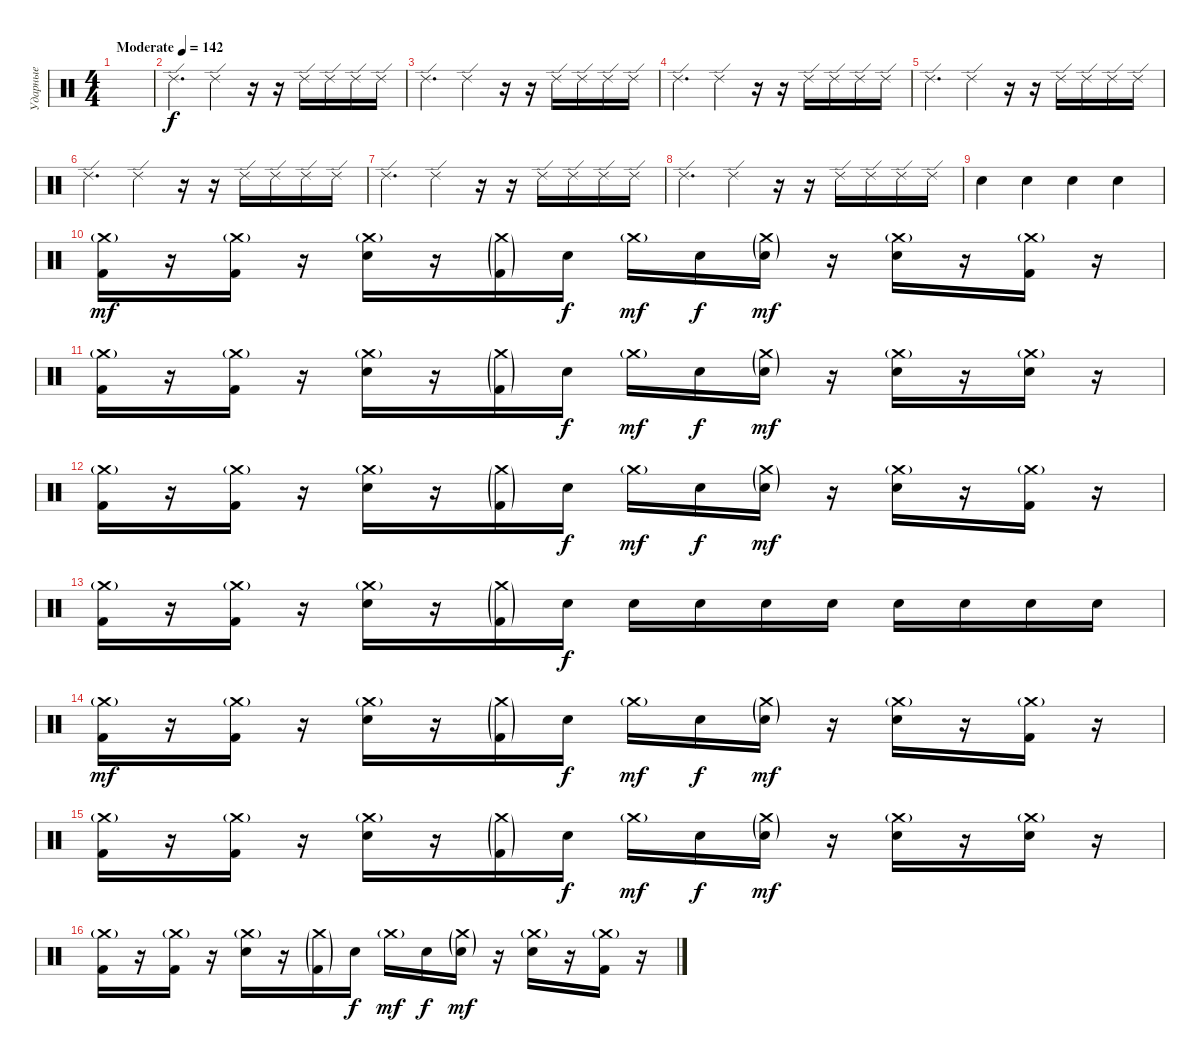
\track ("Ударные" "Ударные") {instrument percussion}
\staff {score}
\articulation defaults
\ts (4 4)
\tempo (142 "Moderate")
\clef neutral
\ks c
|
"Ride (edge) 2".4{d} "Ride (edge) 2".4 r.16 r.16 "Ride (edge) 2".16 "Ride (edge) 2".16 "Ride (edge) 2".16 "Ride (edge) 2".16 |
"Ride (edge) 2".4{d} "Ride (edge) 2".4 r.16 r.16 "Ride (edge) 2".16 "Ride (edge) 2".16 "Ride (edge) 2".16 "Ride (edge) 2".16 |
"Ride (edge) 2".4{d} "Ride (edge) 2".4 r.16 r.16 "Ride (edge) 2".16 "Ride (edge) 2".16 "Ride (edge) 2".16 "Ride (edge) 2".16 |
"Ride (edge) 2".4{d} "Ride (edge) 2".4 r.16 r.16 "Ride (edge) 2".16 "Ride (edge) 2".16 "Ride (edge) 2".16 "Ride (edge) 2".16 |
"Ride (edge) 2".4{d} "Ride (edge) 2".4 r.16 r.16 "Ride (edge) 2".16 "Ride (edge) 2".16 "Ride (edge) 2".16 "Ride (edge) 2".16 |
"Ride (edge) 2".4{d} "Ride (edge) 2".4 r.16 r.16 "Ride (edge) 2".16 "Ride (edge) 2".16 "Ride (edge) 2".16 "Ride (edge) 2".16 |
"Ride (edge) 2".4{d} "Ride (edge) 2".4 r.16 r.16 "Ride (edge) 2".16 "Ride (edge) 2".16 "Ride (edge) 2".16 "Ride (edge) 2".16 |
"Electric Snare (hit)".4 "Electric Snare (hit)".4 "Electric Snare (hit)".4 "Electric Snare (hit)".4 |
("Kick (hit) 2" "Crash medium (hit)"{g}).16{dy mf} r.16 ("Kick (hit) 2" "Crash medium (hit)"{g}).16 r.16 ("Electric Snare (hit)" "Crash medium (hit)"{g}).16 r.16 ("Kick (hit) 2"{g} "Crash medium (hit)"{g}).16 "Electric Snare (hit)".16{dy f} "Crash medium (hit)"{g}.16{dy mf} "Electric Snare (hit)".16{dy f} ("Electric Snare (hit)"{g} "Crash medium (hit)"{g}).16{dy mf} r.16 ("Electric Snare (hit)" "Crash medium (hit)"{g}).16 r.16 ("Kick (hit) 2" "Crash medium (hit)"{g}).16 r.16 |
("Kick (hit) 2" "Crash medium (hit)"{g}).16 r.16 ("Kick (hit) 2" "Crash medium (hit)"{g}).16 r.16 ("Electric Snare (hit)" "Crash medium (hit)"{g}).16 r.16 ("Kick (hit) 2"{g} "Crash medium (hit)"{g}).16 "Electric Snare (hit)".16{dy f} "Crash medium (hit)"{g}.16{dy mf} "Electric Snare (hit)".16{dy f} ("Electric Snare (hit)"{g} "Crash medium (hit)"{g}).16{dy mf} r.16 ("Electric Snare (hit)" "Crash medium (hit)"{g}).16 r.16 ("Electric Snare (hit)" "Crash medium (hit)"{g}).16 r.16 |
("Kick (hit) 2" "Crash medium (hit)"{g}).16 r.16 ("Kick (hit) 2" "Crash medium (hit)"{g}).16 r.16 ("Electric Snare (hit)" "Crash medium (hit)"{g}).16 r.16 ("Kick (hit) 2"{g} "Crash medium (hit)"{g}).16 "Electric Snare (hit)".16{dy f} "Crash medium (hit)"{g}.16{dy mf} "Electric Snare (hit)".16{dy f} ("Electric Snare (hit)"{g} "Crash medium (hit)"{g}).16{dy mf} r.16 ("Electric Snare (hit)" "Crash medium (hit)"{g}).16 r.16 ("Kick (hit) 2" "Crash medium (hit)"{g}).16 r.16 |
("Kick (hit) 2" "Crash medium (hit)"{g}).16 r.16 ("Kick (hit) 2" "Crash medium (hit)"{g}).16 r.16 ("Electric Snare (hit)" "Crash medium (hit)"{g}).16 r.16 ("Kick (hit) 2"{g} "Crash medium (hit)"{g}).16 "Electric Snare (hit)".16{dy f} "Electric Snare (hit)".16 "Electric Snare (hit)".16 "Electric Snare (hit)".16 "Electric Snare (hit)".16 "Electric Snare (hit)".16 "Electric Snare (hit)".16 "Electric Snare (hit)".16 "Electric Snare (hit)".16 |
("Kick (hit) 2" "Crash medium (hit)"{g}).16{dy mf} r.16 ("Kick (hit) 2" "Crash medium (hit)"{g}).16 r.16 ("Electric Snare (hit)" "Crash medium (hit)"{g}).16 r.16 ("Kick (hit) 2"{g} "Crash medium (hit)"{g}).16 "Electric Snare (hit)".16{dy f} "Crash medium (hit)"{g}.16{dy mf} "Electric Snare (hit)".16{dy f} ("Electric Snare (hit)"{g} "Crash medium (hit)"{g}).16{dy mf} r.16 ("Electric Snare (hit)" "Crash medium (hit)"{g}).16 r.16 ("Kick (hit) 2" "Crash medium (hit)"{g}).16 r.16 |
("Kick (hit) 2" "Crash medium (hit)"{g}).16 r.16 ("Kick (hit) 2" "Crash medium (hit)"{g}).16 r.16 ("Electric Snare (hit)" "Crash medium (hit)"{g}).16 r.16 ("Kick (hit) 2"{g} "Crash medium (hit)"{g}).16 "Electric Snare (hit)".16{dy f} "Crash medium (hit)"{g}.16{dy mf} "Electric Snare (hit)".16{dy f} ("Electric Snare (hit)"{g} "Crash medium (hit)"{g}).16{dy mf} r.16 ("Electric Snare (hit)" "Crash medium (hit)"{g}).16 r.16 ("Electric Snare (hit)" "Crash medium (hit)"{g}).16 r.16 |
("Kick (hit) 2" "Crash medium (hit)"{g}).16 r.16 ("Kick (hit) 2" "Crash medium (hit)"{g}).16 r.16 ("Electric Snare (hit)" "Crash medium (hit)"{g}).16 r.16 ("Kick (hit) 2"{g} "Crash medium (hit)"{g}).16 "Electric Snare (hit)".16{dy f} "Crash medium (hit)"{g}.16{dy mf} "Electric Snare (hit)".16{dy f} ("Electric Snare (hit)"{g} "Crash medium (hit)"{g}).16{dy mf} r.16 ("Electric Snare (hit)" "Crash medium (hit)"{g}).16 r.16 ("Kick (hit) 2" "Crash medium (hit)"{g}).16 r.16
